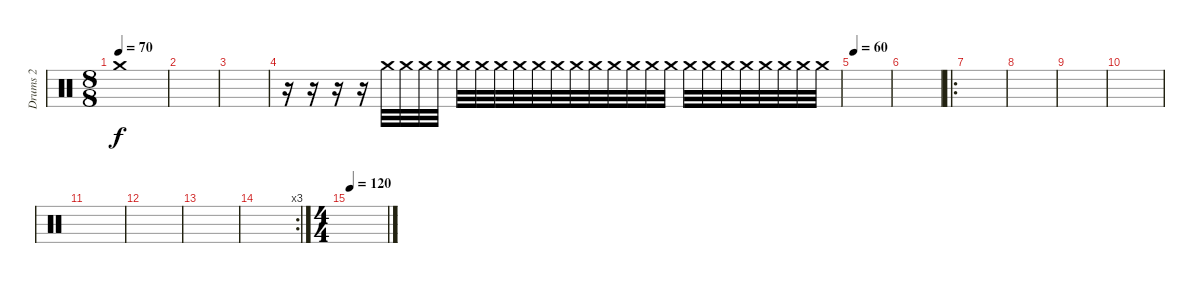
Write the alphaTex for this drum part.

\track ("Drums 2" "Drums 2") {instrument percussion}
\staff {score}
\articulation defaults
\ts (8 8)
\tempo 70
\clef neutral
\ks c "Crash medium (hit)".1{dy f}
|
|
|
r.16 r.16 r.16 r.16 "Crash medium (hit)".32{volume 16} "Crash medium (hit)".32 "Crash medium (hit)".32 "Crash medium (hit)".32 "Crash medium (hit)".32 "Crash medium (hit)".32 "Crash medium (hit)".32 "Crash medium (hit)".32 "Crash medium (hit)".32 "Crash medium (hit)".32 "Crash medium (hit)".32 "Crash medium (hit)".32 "Crash medium (hit)".32 "Crash medium (hit)".32 "Crash medium (hit)".32 "Crash medium (hit)".32 "Crash medium (hit)".32 "Crash medium (hit)".32 "Crash medium (hit)".32 "Crash medium (hit)".32 "Crash medium (hit)".32 "Crash medium (hit)".32 "Crash medium (hit)".32 "Crash medium (hit)".32 |
\tempo 60
|
|
\ro
|
|
|
|
|
|
|
\rc 3
|
\ts (4 4)
\tempo 120
